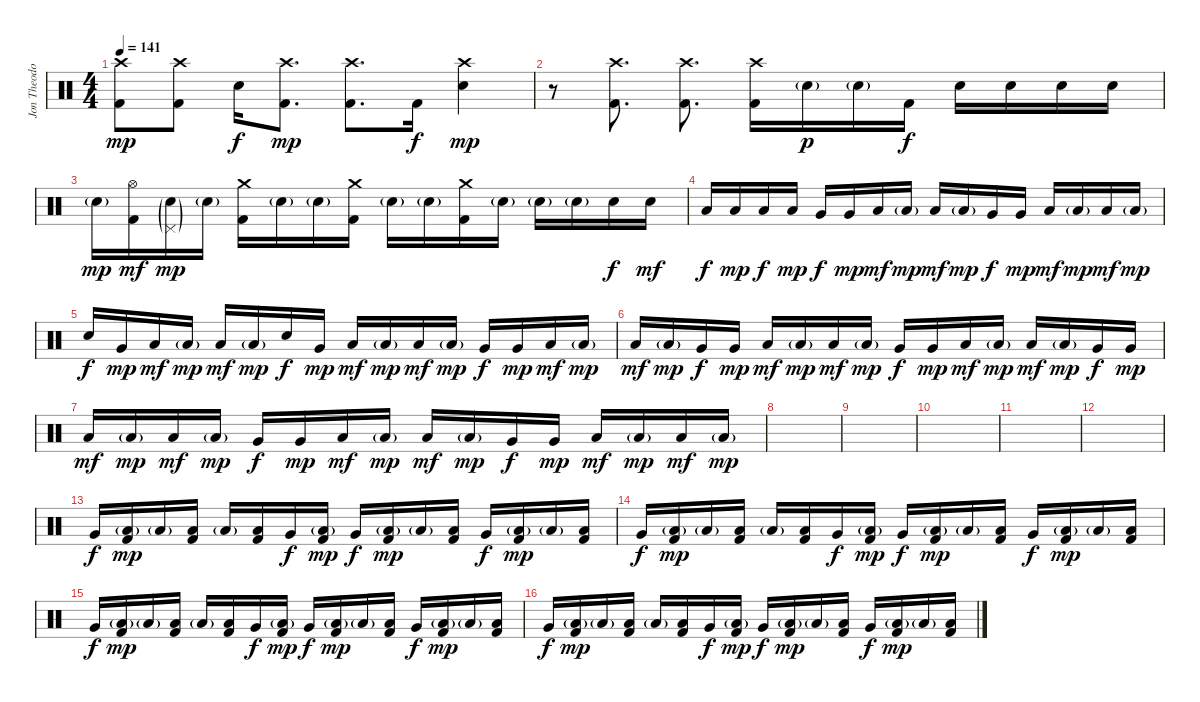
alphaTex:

\track ("Jon Theodore - Drums" "Jon Theodo") {instrument percussion}
\staff {score}
\articulation defaults
\ts (4 4)
\tempo 141
\clef neutral
\ks c
("Crash high (hit)" "Kick (hit) 2").8{dy mp volume 8} ("Crash high (hit)" "Kick (hit) 2").8 "Electric Snare (hit)".16{dy f} ("Crash high (hit)" "Kick (hit) 2").8{d dy mp} ("Crash high (hit)" "Kick (hit) 2").8{d} "Kick (hit) 2".16{dy f} ("Crash high (hit)" "Electric Snare (hit)").4{dy mp} |
r.8 ("Crash high (hit)" "Kick (hit) 2").8{d} ("Crash high (hit)" "Kick (hit) 2").8{d} ("Crash high (hit)" "Kick (hit) 2").16 "Electric Snare (hit)"{g}.16{dy p} "Electric Snare (hit)"{g}.16 "Kick (hit) 2".16{dy f} "Electric Snare (hit)".16 "Electric Snare (hit)".16 "Electric Snare (hit)".16 "Electric Snare (hit)".16 |
"Electric Snare (hit)"{g}.16{dy mp} ("Hi-Hat (open)" "Kick (hit) 2").16{dy mf} ("Electric Snare (hit)"{g} "Pedal Hi-Hat (hit)"{g}).16{dy mp} "Electric Snare (hit)"{g}.16 ("Crash medium (hit)" "Kick (hit) 2").16 "Electric Snare (hit)"{g}.16 "Electric Snare (hit)"{g}.16 ("Crash medium (hit)" "Kick (hit) 2").16 "Electric Snare (hit)"{g}.16 "Electric Snare (hit)"{g}.16 ("Crash medium (hit)" "Kick (hit) 2").16 "Electric Snare (hit)"{g}.16 "Electric Snare (hit)"{g}.16 "Electric Snare (hit)"{g}.16 "Electric Snare (hit)".16{dy f} "Electric Snare (hit)".16{dy mf} |
"Low Tom (hit)".16{dy f} "Low Tom (hit)".16{dy mp} "Low Tom (hit)".16{dy f} "Low Tom (hit)".16{dy mp} "Very Low Tom (hit)".16{dy f} "Very Low Tom (hit)".16{dy mp} "Low Floor Tom (hit)".16{dy mf} "Low Floor Tom (hit)"{g}.16{dy mp} "Low Floor Tom (hit)".16{dy mf} "Low Floor Tom (hit)"{g}.16{dy mp} "Very Low Tom (hit)".16{dy f} "Very Low Tom (hit)".16{dy mp} "Low Floor Tom (hit)".16{dy mf} "Low Floor Tom (hit)"{g}.16{dy mp} "Low Floor Tom (hit)".16{dy mf} "Low Floor Tom (hit)"{g}.16{dy mp} |
"Electric Snare (hit)".16{dy f volume 0} "Very Low Tom (hit)".16{dy mp} "Low Floor Tom (hit)".16{dy mf} "Low Floor Tom (hit)"{g}.16{dy mp} "Low Floor Tom (hit)".16{dy mf} "Low Floor Tom (hit)"{g}.16{dy mp} "Electric Snare (hit)".16{dy f} "Very Low Tom (hit)".16{dy mp} "Low Floor Tom (hit)".16{dy mf} "Low Floor Tom (hit)"{g}.16{dy mp} "Low Floor Tom (hit)".16{dy mf} "Low Floor Tom (hit)"{g}.16{dy mp} "Very Low Tom (hit)".16{dy f} "Very Low Tom (hit)".16{dy mp} "Low Floor Tom (hit)".16{dy mf} "Low Floor Tom (hit)"{g}.16{dy mp} |
"Low Floor Tom (hit)".16{dy mf} "Low Floor Tom (hit)"{g}.16{dy mp} "Very Low Tom (hit)".16{dy f} "Very Low Tom (hit)".16{dy mp} "Low Floor Tom (hit)".16{dy mf} "Low Floor Tom (hit)"{g}.16{dy mp} "Low Floor Tom (hit)".16{dy mf} "Low Floor Tom (hit)"{g}.16{dy mp} "Very Low Tom (hit)".16{dy f} "Very Low Tom (hit)".16{dy mp} "Low Floor Tom (hit)".16{dy mf} "Low Floor Tom (hit)"{g}.16{dy mp} "Low Floor Tom (hit)".16{dy mf} "Low Floor Tom (hit)"{g}.16{dy mp} "Very Low Tom (hit)".16{dy f} "Very Low Tom (hit)".16{dy mp} |
"Low Floor Tom (hit)".16{dy mf} "Low Floor Tom (hit)"{g}.16{dy mp} "Low Floor Tom (hit)".16{dy mf} "Low Floor Tom (hit)"{g}.16{dy mp} "Very Low Tom (hit)".16{dy f} "Very Low Tom (hit)".16{dy mp} "Low Floor Tom (hit)".16{dy mf} "Low Floor Tom (hit)"{g}.16{dy mp} "Low Floor Tom (hit)".16{dy mf} "Low Floor Tom (hit)"{g}.16{dy mp} "Very Low Tom (hit)".16{dy f} "Very Low Tom (hit)".16{dy mp} "Low Floor Tom (hit)".16{dy mf} "Low Floor Tom (hit)"{g}.16{dy mp} "Low Floor Tom (hit)".16{dy mf} "Low Floor Tom (hit)"{g}.16{dy mp} |
|
|
|
|
|
"Very Low Tom (hit)".16{dy f volume 3} ("Low Floor Tom (hit)"{g} "Kick (hit) 2").16{dy mp} "Low Floor Tom (hit)"{g}.16 ("Low Floor Tom (hit)" "Kick (hit) 2").16 "Low Floor Tom (hit)"{g}.16 ("Low Floor Tom (hit)" "Kick (hit) 2").16 "Very Low Tom (hit)".16{dy f} ("Low Floor Tom (hit)"{g} "Kick (hit) 2").16{dy mp} "Very Low Tom (hit)".16{dy f} ("Low Floor Tom (hit)"{g} "Kick (hit) 2").16{dy mp} "Low Floor Tom (hit)"{g}.16 ("Low Floor Tom (hit)" "Kick (hit) 2").16 "Very Low Tom (hit)".16{dy f} ("Low Floor Tom (hit)"{g} "Kick (hit) 2").16{dy mp} "Low Floor Tom (hit)"{g}.16 ("Low Floor Tom (hit)" "Kick (hit) 2").16 |
"Very Low Tom (hit)".16{dy f} ("Low Floor Tom (hit)"{g} "Kick (hit) 2").16{dy mp} "Low Floor Tom (hit)"{g}.16 ("Low Floor Tom (hit)" "Kick (hit) 2").16 "Low Floor Tom (hit)"{g}.16 ("Low Floor Tom (hit)" "Kick (hit) 2").16 "Very Low Tom (hit)".16{dy f} ("Low Floor Tom (hit)"{g} "Kick (hit) 2").16{dy mp} "Very Low Tom (hit)".16{dy f} ("Low Floor Tom (hit)"{g} "Kick (hit) 2").16{dy mp} "Low Floor Tom (hit)"{g}.16 ("Low Floor Tom (hit)" "Kick (hit) 2").16 "Very Low Tom (hit)".16{dy f} ("Low Floor Tom (hit)"{g} "Kick (hit) 2").16{dy mp} "Low Floor Tom (hit)"{g}.16 ("Low Floor Tom (hit)" "Kick (hit) 2").16 |
"Very Low Tom (hit)".16{dy f} ("Low Floor Tom (hit)"{g} "Kick (hit) 2").16{dy mp} "Low Floor Tom (hit)"{g}.16 ("Low Floor Tom (hit)" "Kick (hit) 2").16 "Low Floor Tom (hit)"{g}.16 ("Low Floor Tom (hit)" "Kick (hit) 2").16 "Very Low Tom (hit)".16{dy f} ("Low Floor Tom (hit)"{g} "Kick (hit) 2").16{dy mp} "Very Low Tom (hit)".16{dy f} ("Low Floor Tom (hit)"{g} "Kick (hit) 2").16{dy mp} "Low Floor Tom (hit)"{g}.16 ("Low Floor Tom (hit)" "Kick (hit) 2").16 "Very Low Tom (hit)".16{dy f} ("Low Floor Tom (hit)"{g} "Kick (hit) 2").16{dy mp} "Low Floor Tom (hit)"{g}.16 ("Low Floor Tom (hit)" "Kick (hit) 2").16 |
"Very Low Tom (hit)".16{dy f volume 6} ("Low Floor Tom (hit)"{g} "Kick (hit) 2").16{dy mp} "Low Floor Tom (hit)"{g}.16 ("Low Floor Tom (hit)" "Kick (hit) 2").16 "Low Floor Tom (hit)"{g}.16 ("Low Floor Tom (hit)" "Kick (hit) 2").16 "Very Low Tom (hit)".16{dy f} ("Low Floor Tom (hit)"{g} "Kick (hit) 2").16{dy mp} "Very Low Tom (hit)".16{dy f} ("Low Floor Tom (hit)"{g} "Kick (hit) 2").16{dy mp} "Low Floor Tom (hit)"{g}.16 ("Low Floor Tom (hit)" "Kick (hit) 2").16 "Very Low Tom (hit)".16{dy f} ("Low Floor Tom (hit)"{g} "Kick (hit) 2").16{dy mp} "Low Floor Tom (hit)"{g}.16 ("Low Floor Tom (hit)" "Kick (hit) 2").16
